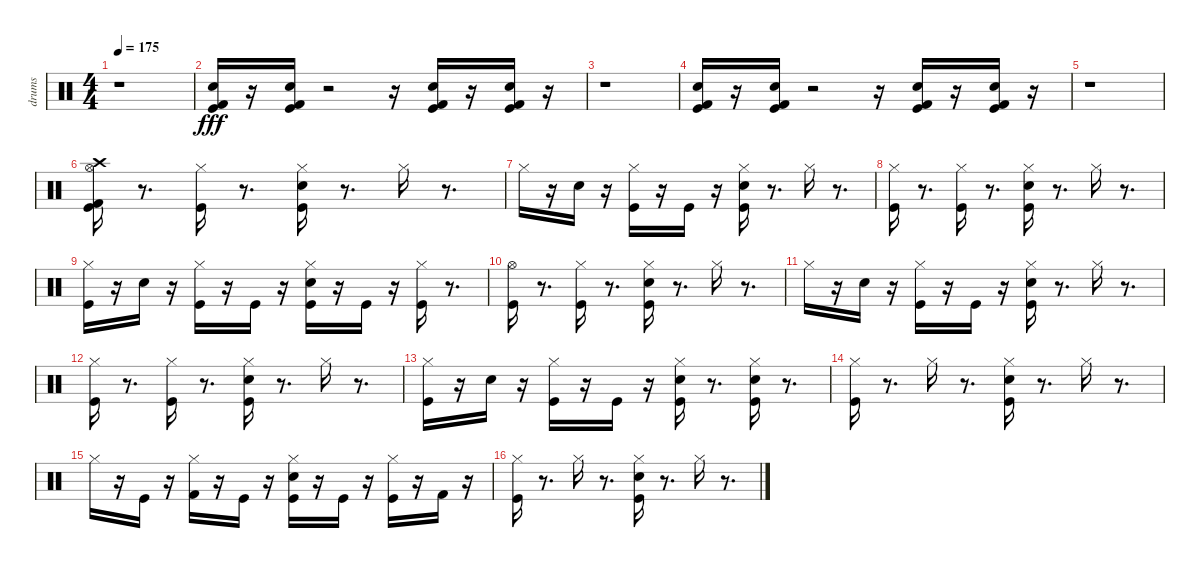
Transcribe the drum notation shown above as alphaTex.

\track ("drums" "drums") {instrument percussion}
\staff {score}
\articulation defaults
\ts (4 4)
\tempo 175
\clef neutral
\ks c
r.1{dy fff} |
("Kick (hit) 2" "Kick (hit)" "Snare (hit) 2").16 r.16 ("Snare (hit) 2" "Kick (hit)" "Kick (hit) 2").16 r.2 r.16 ("Kick (hit) 2" "Kick (hit)" "Snare (hit) 2").16 r.16 ("Snare (hit) 2" "Kick (hit)" "Kick (hit) 2").16 r.16 |
r.1 |
("Kick (hit) 2" "Kick (hit)" "Snare (hit) 2").16 r.16 ("Snare (hit) 2" "Kick (hit)" "Kick (hit) 2").16 r.2 r.16 ("Kick (hit) 2" "Kick (hit)" "Snare (hit) 2").16 r.16 ("Snare (hit) 2" "Kick (hit)" "Kick (hit) 2").16 r.16 |
r.1 |
("Kick (hit)" "Hi-Hat (open)" "Crash high (hit)" "Kick (hit) 2").16 r.8{d} ("Kick (hit)" "Hi-Hat (closed)").16 r.8{d} ("Snare (hit) 2" "Kick (hit)" "Hi-Hat (closed)").16 r.8{d} "Hi-Hat (closed)".16 r.8{d} |
"Hi-Hat (closed)".16 r.16 "Snare (hit) 2".16 r.16 ("Hi-Hat (closed)" "Kick (hit)").16 r.16 "Kick (hit)".16 r.16 ("Hi-Hat (closed)" "Snare (hit) 2" "Kick (hit)").16 r.8{d} "Hi-Hat (closed)".16 r.8{d} |
("Kick (hit)" "Hi-Hat (closed)").16 r.8{d} ("Kick (hit)" "Hi-Hat (closed)").16 r.8{d} ("Snare (hit) 2" "Kick (hit)" "Hi-Hat (closed)").16 r.8{d} "Hi-Hat (closed)".16 r.8{d} |
("Hi-Hat (closed)" "Kick (hit)").16 r.16 "Snare (hit) 2".16 r.16 ("Hi-Hat (closed)" "Kick (hit)").16 r.16 "Kick (hit)".16 r.16 ("Hi-Hat (closed)" "Snare (hit) 2" "Kick (hit)").16 r.16 "Kick (hit)".16 r.16 ("Hi-Hat (closed)" "Kick (hit)").16 r.8{d} |
("Kick (hit)" "Hi-Hat (open)").16 r.8{d} ("Kick (hit)" "Hi-Hat (closed)").16 r.8{d} ("Snare (hit) 2" "Kick (hit)" "Hi-Hat (closed)").16 r.8{d} "Hi-Hat (closed)".16 r.8{d} |
"Hi-Hat (closed)".16 r.16 "Snare (hit) 2".16 r.16 ("Hi-Hat (closed)" "Kick (hit)").16 r.16 "Kick (hit)".16 r.16 ("Hi-Hat (closed)" "Snare (hit) 2" "Kick (hit)").16 r.8{d} "Hi-Hat (closed)".16 r.8{d} |
("Kick (hit)" "Hi-Hat (closed)").16 r.8{d} ("Kick (hit)" "Hi-Hat (closed)").16 r.8{d} ("Snare (hit) 2" "Kick (hit)" "Hi-Hat (closed)").16 r.8{d} "Hi-Hat (closed)".16 r.8{d} |
("Hi-Hat (closed)" "Kick (hit)").16 r.16 "Snare (hit) 2".16 r.16 ("Hi-Hat (closed)" "Kick (hit)").16 r.16 "Kick (hit)".16 r.16 ("Hi-Hat (closed)" "Snare (hit) 2" "Kick (hit)").16 r.8{d} ("Hi-Hat (closed)" "Kick (hit)" "Snare (hit) 2").16 r.8{d} |
("Kick (hit)" "Hi-Hat (closed)").16 r.8{d} "Hi-Hat (closed)".16 r.8{d} ("Hi-Hat (closed)" "Snare (hit) 2" "Kick (hit)").16 r.8{d} "Hi-Hat (closed)".16 r.8{d} |
"Hi-Hat (closed)".16 r.16 "Kick (hit)".16 r.16 ("Hi-Hat (closed)" "Kick (hit) 2").16 r.16 "Kick (hit)".16 r.16 ("Hi-Hat (closed)" "Snare (hit) 2" "Kick (hit)").16 r.16 "Kick (hit)".16 r.16 ("Hi-Hat (closed)" "Kick (hit)").16 r.16 "Kick (hit) 2".16 r.16 |
("Hi-Hat (closed)" "Kick (hit)").16 r.8{d} "Hi-Hat (closed)".16 r.8{d} ("Hi-Hat (closed)" "Snare (hit) 2" "Kick (hit)").16 r.8{d} "Hi-Hat (closed)".16 r.8{d}
